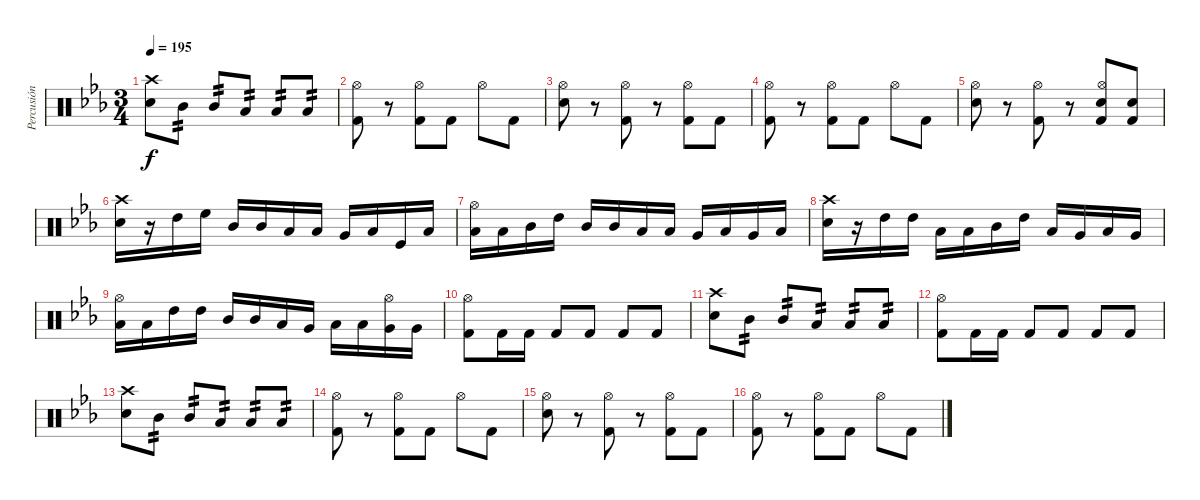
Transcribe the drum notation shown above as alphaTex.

\track ("Percusión" "Percusión") {instrument percussion}
\staff {score}
\articulation defaults
\ts (3 4)
\tempo 195
\clef neutral
\ks eb
("Crash high (hit)" "Snare (hit) 2").8{dy f} "Mid Tom (hit)".8{tp 2} "Mid Tom (hit)".8{tp 2} "Low Tom (hit)".8{tp 2} "Low Tom (hit)".8{tp 2} "Low Floor Tom (hit)".8{tp 2} |
("Hi-Hat (open)" "Kick (hit) 2").8 r.8 ("Hi-Hat (open)" "Kick (hit) 2").8 "Kick (hit) 2".8 "Hi-Hat (open)".8 "Kick (hit) 2".8 |
("Hi-Hat (open)" "Snare (hit) 2").8 r.8 ("Hi-Hat (open)" "Kick (hit) 2").8 r.8 ("Hi-Hat (open)" "Kick (hit) 2").8 "Kick (hit) 2".8 |
("Hi-Hat (open)" "Kick (hit) 2").8 r.8 ("Hi-Hat (open)" "Kick (hit) 2").8 "Kick (hit) 2".8 "Hi-Hat (open)".8 "Kick (hit) 2".8 |
("Hi-Hat (open)" "Snare (hit) 2").8 r.8 ("Hi-Hat (open)" "Kick (hit) 2").8 r.8 ("Hi-Hat (open)" "Snare (hit) 2" "Kick (hit) 2").8 ("Snare (hit) 2" "Kick (hit) 2").8 |
("Crash high (hit)" "Snare (hit) 2").16 r.16 "High Tom (hit)".16 "High Floor Tom (hit)".16 "Mid Tom (hit)".16 "Mid Tom (hit)".16 "Low Tom (hit)".16 "Low Tom (hit)".16 "Very Low Tom (hit)".16 "Low Floor Tom (hit)".16 "Kick (hit)".16 "Low Floor Tom (hit)".16 |
("Hi-Hat (open)" "Low Tom (hit)").16 "Low Tom (hit)".16 "Mid Tom (hit)".16 "High Tom (hit)".16 "Mid Tom (hit)".16 "Mid Tom (hit)".16 "Low Tom (hit)".16 "Low Tom (hit)".16 "Very Low Tom (hit)".16 "Low Floor Tom (hit)".16 "Very Low Tom (hit)".16 "Low Floor Tom (hit)".16 |
("Crash high (hit)" "Snare (hit) 2").16 r.16 "High Tom (hit)".16 "High Tom (hit)".16 "Low Tom (hit)".16 "Low Tom (hit)".16 "Mid Tom (hit)".16 "High Tom (hit)".16 "Low Tom (hit)".16 "Very Low Tom (hit)".16 "Low Tom (hit)".16 "Very Low Tom (hit)".16 |
("Hi-Hat (open)" "Low Tom (hit)").16 "Low Tom (hit)".16 "High Tom (hit)".16 "High Tom (hit)".16 "Mid Tom (hit)".16 "Mid Tom (hit)".16 "Low Tom (hit)".16 "Very Low Tom (hit)".16 "Low Tom (hit)".16 "Low Tom (hit)".16 ("Hi-Hat (open)" "Very Low Tom (hit)").16 "Very Low Tom (hit)".16 |
("Hi-Hat (open)" "Kick (hit) 2").8 "Kick (hit) 2".16 "Kick (hit) 2".16 "Kick (hit) 2".8 "Kick (hit) 2".8 "Kick (hit) 2".8 "Kick (hit) 2".8 |
("Crash high (hit)" "Snare (hit) 2").8 "Mid Tom (hit)".8{tp 2} "Mid Tom (hit)".8{tp 2} "Low Tom (hit)".8{tp 2} "Low Tom (hit)".8{tp 2} "Low Floor Tom (hit)".8{tp 2} |
("Hi-Hat (open)" "Kick (hit) 2").8 "Kick (hit) 2".16 "Kick (hit) 2".16 "Kick (hit) 2".8 "Kick (hit) 2".8 "Kick (hit) 2".8 "Kick (hit) 2".8 |
("Crash high (hit)" "Snare (hit) 2").8 "Mid Tom (hit)".8{tp 2} "Mid Tom (hit)".8{tp 2} "Low Tom (hit)".8{tp 2} "Low Tom (hit)".8{tp 2} "Low Floor Tom (hit)".8{tp 2} |
("Hi-Hat (open)" "Kick (hit) 2").8 r.8 ("Hi-Hat (open)" "Kick (hit) 2").8 "Kick (hit) 2".8 "Hi-Hat (open)".8 "Kick (hit) 2".8 |
("Hi-Hat (open)" "Snare (hit) 2").8 r.8 ("Hi-Hat (open)" "Kick (hit) 2").8 r.8 ("Hi-Hat (open)" "Kick (hit) 2").8 "Kick (hit) 2".8 |
("Hi-Hat (open)" "Kick (hit) 2").8 r.8 ("Hi-Hat (open)" "Kick (hit) 2").8 "Kick (hit) 2".8 "Hi-Hat (open)".8 "Kick (hit) 2".8
